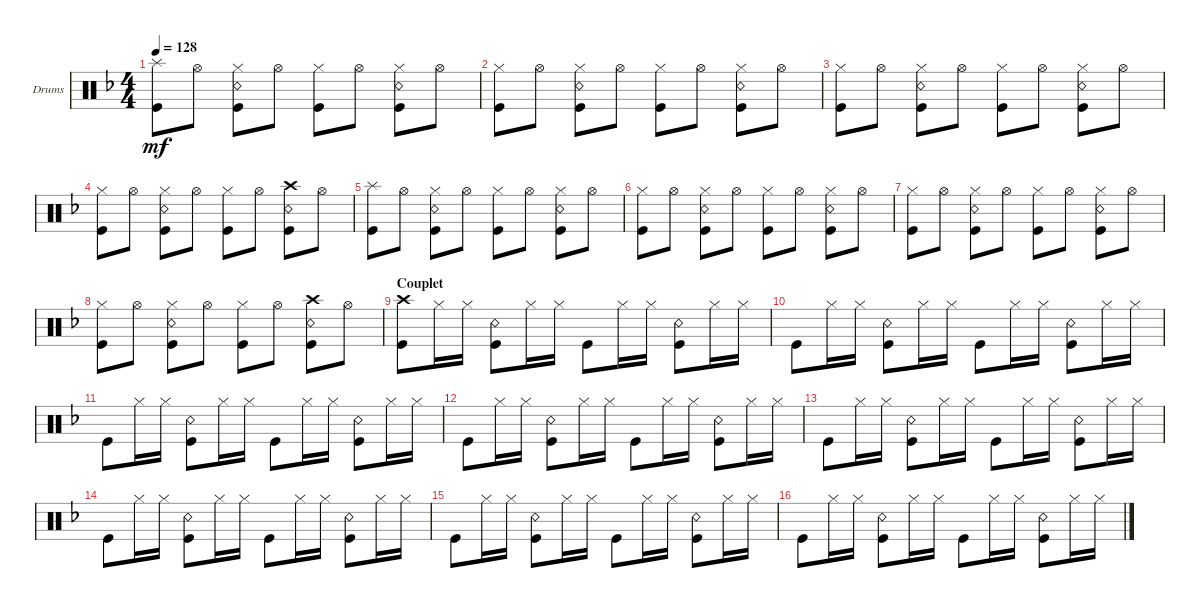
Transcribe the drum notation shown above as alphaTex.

\defaultSystemsLayout 4
\bracketExtendMode groupsimilarinstruments
\firstSystemTrackNameOrientation horizontal
\otherSystemsTrackNameOrientation horizontal
\track ("Drumkit" "Drums") {instrument percussion}
\staff {score}
\articulation defaults
\ts (4 4)
\tempo 128
\clef neutral
\ks f
("Kick (hit)" "Splash (hit)").8{dy mf} "Hi-Hat (open)".8 ("Snare (rim shot)" "Kick (hit)" "Hi-Hat (closed)").8 "Hi-Hat (open)".8 ("Hi-Hat (closed)" "Kick (hit)").8 "Hi-Hat (open)".8 ("Snare (rim shot)" "Kick (hit)" "Hi-Hat (closed)").8 "Hi-Hat (open)".8 |
("Hi-Hat (closed)" "Kick (hit)").8 "Hi-Hat (open)".8 ("Snare (rim shot)" "Kick (hit)" "Hi-Hat (closed)").8 "Hi-Hat (open)".8 ("Hi-Hat (closed)" "Kick (hit)").8 "Hi-Hat (open)".8 ("Snare (rim shot)" "Kick (hit)" "Hi-Hat (closed)").8 "Hi-Hat (open)".8 |
("Hi-Hat (closed)" "Kick (hit)").8 "Hi-Hat (open)".8 ("Snare (rim shot)" "Kick (hit)" "Hi-Hat (closed)").8 "Hi-Hat (open)".8 ("Hi-Hat (closed)" "Kick (hit)").8 "Hi-Hat (open)".8 ("Snare (rim shot)" "Kick (hit)" "Hi-Hat (closed)").8 "Hi-Hat (open)".8 |
("Hi-Hat (closed)" "Kick (hit)").8 "Hi-Hat (open)".8 ("Snare (rim shot)" "Kick (hit)" "Hi-Hat (closed)").8 "Hi-Hat (open)".8 ("Hi-Hat (closed)" "Kick (hit)").8 "Hi-Hat (open)".8 ("Snare (rim shot)" "Kick (hit)" "Crash high (hit)").8 "Hi-Hat (open)".8 |
("Kick (hit)" "Splash (hit)").8 "Hi-Hat (open)".8 ("Snare (rim shot)" "Kick (hit)" "Hi-Hat (closed)").8 "Hi-Hat (open)".8 ("Hi-Hat (closed)" "Kick (hit)").8 "Hi-Hat (open)".8 ("Snare (rim shot)" "Kick (hit)" "Hi-Hat (closed)").8 "Hi-Hat (open)".8 |
("Hi-Hat (closed)" "Kick (hit)").8 "Hi-Hat (open)".8 ("Snare (rim shot)" "Kick (hit)" "Hi-Hat (closed)").8 "Hi-Hat (open)".8 ("Hi-Hat (closed)" "Kick (hit)").8 "Hi-Hat (open)".8 ("Snare (rim shot)" "Kick (hit)" "Hi-Hat (closed)").8 "Hi-Hat (open)".8 |
("Hi-Hat (closed)" "Kick (hit)").8 "Hi-Hat (open)".8 ("Snare (rim shot)" "Kick (hit)" "Hi-Hat (closed)").8 "Hi-Hat (open)".8 ("Hi-Hat (closed)" "Kick (hit)").8 "Hi-Hat (open)".8 ("Snare (rim shot)" "Kick (hit)" "Hi-Hat (closed)").8 "Hi-Hat (open)".8 |
("Hi-Hat (closed)" "Kick (hit)").8 "Hi-Hat (open)".8 ("Snare (rim shot)" "Kick (hit)" "Hi-Hat (closed)").8 "Hi-Hat (open)".8 ("Hi-Hat (closed)" "Kick (hit)").8 "Hi-Hat (open)".8 ("Snare (rim shot)" "Kick (hit)" "Crash high (hit)").8 "Hi-Hat (open)".8 |
\section ("" "Couplet")
("Kick (hit)" "Crash high (hit)").8 "Hi-Hat (closed)".16 "Hi-Hat (closed)".16 ("Kick (hit)" "Snare (rim shot)").8 "Hi-Hat (closed)".16 "Hi-Hat (closed)".16 "Kick (hit)".8 "Hi-Hat (closed)".16 "Hi-Hat (closed)".16 ("Kick (hit)" "Snare (rim shot)").8 "Hi-Hat (closed)".16 "Hi-Hat (closed)".16 |
"Kick (hit)".8 "Hi-Hat (closed)".16 "Hi-Hat (closed)".16 ("Kick (hit)" "Snare (rim shot)").8 "Hi-Hat (closed)".16 "Hi-Hat (closed)".16 "Kick (hit)".8 "Hi-Hat (closed)".16 "Hi-Hat (closed)".16 ("Kick (hit)" "Snare (rim shot)").8 "Hi-Hat (closed)".16 "Hi-Hat (closed)".16 |
"Kick (hit)".8 "Hi-Hat (closed)".16 "Hi-Hat (closed)".16 ("Kick (hit)" "Snare (rim shot)").8 "Hi-Hat (closed)".16 "Hi-Hat (closed)".16 "Kick (hit)".8 "Hi-Hat (closed)".16 "Hi-Hat (closed)".16 ("Kick (hit)" "Snare (rim shot)").8 "Hi-Hat (closed)".16 "Hi-Hat (closed)".16 |
"Kick (hit)".8 "Hi-Hat (closed)".16 "Hi-Hat (closed)".16 ("Kick (hit)" "Snare (rim shot)").8 "Hi-Hat (closed)".16 "Hi-Hat (closed)".16 "Kick (hit)".8 "Hi-Hat (closed)".16 "Hi-Hat (closed)".16 ("Kick (hit)" "Snare (rim shot)").8 "Hi-Hat (closed)".16 "Hi-Hat (closed)".16 |
"Kick (hit)".8 "Hi-Hat (closed)".16 "Hi-Hat (closed)".16 ("Kick (hit)" "Snare (rim shot)").8 "Hi-Hat (closed)".16 "Hi-Hat (closed)".16 "Kick (hit)".8 "Hi-Hat (closed)".16 "Hi-Hat (closed)".16 ("Kick (hit)" "Snare (rim shot)").8 "Hi-Hat (closed)".16 "Hi-Hat (closed)".16 |
"Kick (hit)".8 "Hi-Hat (closed)".16 "Hi-Hat (closed)".16 ("Kick (hit)" "Snare (rim shot)").8 "Hi-Hat (closed)".16 "Hi-Hat (closed)".16 "Kick (hit)".8 "Hi-Hat (closed)".16 "Hi-Hat (closed)".16 ("Kick (hit)" "Snare (rim shot)").8 "Hi-Hat (closed)".16 "Hi-Hat (closed)".16 |
"Kick (hit)".8 "Hi-Hat (closed)".16 "Hi-Hat (closed)".16 ("Kick (hit)" "Snare (rim shot)").8 "Hi-Hat (closed)".16 "Hi-Hat (closed)".16 "Kick (hit)".8 "Hi-Hat (closed)".16 "Hi-Hat (closed)".16 ("Kick (hit)" "Snare (rim shot)").8 "Hi-Hat (closed)".16 "Hi-Hat (closed)".16 |
"Kick (hit)".8 "Hi-Hat (closed)".16 "Hi-Hat (closed)".16 ("Kick (hit)" "Snare (rim shot)").8 "Hi-Hat (closed)".16 "Hi-Hat (closed)".16 "Kick (hit)".8 "Hi-Hat (closed)".16 "Hi-Hat (closed)".16 ("Kick (hit)" "Snare (rim shot)").8 "Hi-Hat (closed)".16 "Hi-Hat (closed)".16
